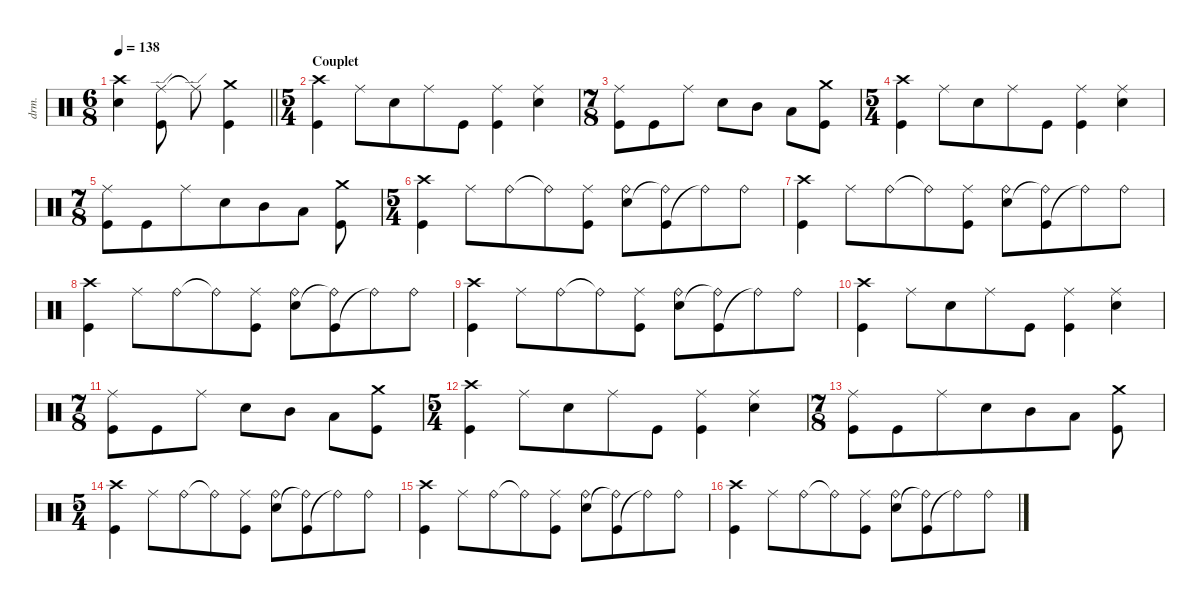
\defaultSystemsLayout 4
\hideDynamics
\bracketExtendMode nobrackets
\track ("Percussions" "drm.") {instrument percussion}
\staff {score}
\articulation defaults
\ts (6 8)
\tempo 138
\clef neutral
\barLineRight lightlight
\ks aminor
("Crash high (hit)" "Snare (hit) 2").4{dy f} ("Ride (edge)" "Kick (hit)").8 "Ride (edge)"{t}.8 ("Crash medium (hit)" "Kick (hit)").4 |
\ts (5 4)
\beaming (8 6 4)
\section ("" "Couplet")
("Crash high (hit)" "Kick (hit)").4 "Ride (middle)".8 "Snare (hit) 2".8 "Ride (middle)".8 "Kick (hit)".8 ("Ride (middle)" "Kick (hit)").4 ("Ride (middle)" "Snare (hit) 2").4 |
\ts (7 8)
\beaming (8 3 2 2)
("Ride (middle)" "Kick (hit)").8 "Kick (hit)".8 "Ride (middle)".8 "Snare (hit) 2".8 "Mid Tom (hit)".8 "Low Tom (hit)".8 ("Kick (hit)" "Crash medium (hit)").8 |
\ts (5 4)
\beaming (8 6 4)
("Crash high (hit)" "Kick (hit)").4 "Ride (middle)".8 "Snare (hit) 2".8 "Ride (middle)".8 "Kick (hit)".8 ("Ride (middle)" "Kick (hit)").4 ("Ride (middle)" "Snare (hit) 2").4 |
\ts (7 8)
\beaming (8 6 4)
("Ride (middle)" "Kick (hit)").8 "Kick (hit)".8 "Ride (middle)".8 "Snare (hit) 2".8 "Mid Tom (hit)".8 "Low Tom (hit)".8 ("Kick (hit)" "Crash medium (hit)").8 |
\ts (5 4)
\beaming (8 6 4)
("Crash high (hit)" "Kick (hit)").4 "Ride (middle)".8 "Ride (bell)".8 "Ride (bell)"{t}.8 ("Ride (middle)" "Kick (hit)").8 ("Ride (bell)" "Snare (hit) 2").8 ("Kick (hit)" "Ride (bell)"{t}).8 "Ride (bell)"{t}.8 "Ride (bell)".8 |
("Crash high (hit)" "Kick (hit)").4 "Ride (middle)".8 "Ride (bell)".8 "Ride (bell)"{t}.8 ("Ride (middle)" "Kick (hit)").8 ("Ride (bell)" "Snare (hit) 2").8 ("Kick (hit)" "Ride (bell)"{t}).8 "Ride (bell)"{t}.8 "Ride (bell)".8 |
("Crash high (hit)" "Kick (hit)").4 "Ride (middle)".8 "Ride (bell)".8 "Ride (bell)"{t}.8 ("Ride (middle)" "Kick (hit)").8 ("Ride (bell)" "Snare (hit) 2").8 ("Kick (hit)" "Ride (bell)"{t}).8 "Ride (bell)"{t}.8 "Ride (bell)".8 |
("Crash high (hit)" "Kick (hit)").4 "Ride (middle)".8 "Ride (bell)".8 "Ride (bell)"{t}.8 ("Ride (middle)" "Kick (hit)").8 ("Ride (bell)" "Snare (hit) 2").8 ("Kick (hit)" "Ride (bell)"{t}).8 "Ride (bell)"{t}.8 "Ride (bell)".8 |
("Crash high (hit)" "Kick (hit)").4 "Ride (middle)".8 "Snare (hit) 2".8 "Ride (middle)".8 "Kick (hit)".8 ("Ride (middle)" "Kick (hit)").4 ("Ride (middle)" "Snare (hit) 2").4 |
\ts (7 8)
\beaming (8 3 2 2)
("Ride (middle)" "Kick (hit)").8 "Kick (hit)".8 "Ride (middle)".8 "Snare (hit) 2".8 "Mid Tom (hit)".8 "Low Tom (hit)".8 ("Kick (hit)" "Crash medium (hit)").8 |
\ts (5 4)
\beaming (8 6 4)
("Crash high (hit)" "Kick (hit)").4 "Ride (middle)".8 "Snare (hit) 2".8 "Ride (middle)".8 "Kick (hit)".8 ("Ride (middle)" "Kick (hit)").4 ("Ride (middle)" "Snare (hit) 2").4 |
\ts (7 8)
\beaming (8 6 4)
("Ride (middle)" "Kick (hit)").8 "Kick (hit)".8 "Ride (middle)".8 "Snare (hit) 2".8 "Mid Tom (hit)".8 "Low Tom (hit)".8 ("Kick (hit)" "Crash medium (hit)").8 |
\ts (5 4)
\beaming (8 6 4)
("Crash high (hit)" "Kick (hit)").4 "Ride (middle)".8 "Ride (bell)".8 "Ride (bell)"{t}.8 ("Ride (middle)" "Kick (hit)").8 ("Ride (bell)" "Snare (hit) 2").8 ("Kick (hit)" "Ride (bell)"{t}).8 "Ride (bell)"{t}.8 "Ride (bell)".8 |
("Crash high (hit)" "Kick (hit)").4 "Ride (middle)".8 "Ride (bell)".8 "Ride (bell)"{t}.8 ("Ride (middle)" "Kick (hit)").8 ("Ride (bell)" "Snare (hit) 2").8 ("Kick (hit)" "Ride (bell)"{t}).8 "Ride (bell)"{t}.8 "Ride (bell)".8 |
("Crash high (hit)" "Kick (hit)").4 "Ride (middle)".8 "Ride (bell)".8 "Ride (bell)"{t}.8 ("Ride (middle)" "Kick (hit)").8 ("Ride (bell)" "Snare (hit) 2").8 ("Kick (hit)" "Ride (bell)"{t}).8 "Ride (bell)"{t}.8 "Ride (bell)".8
